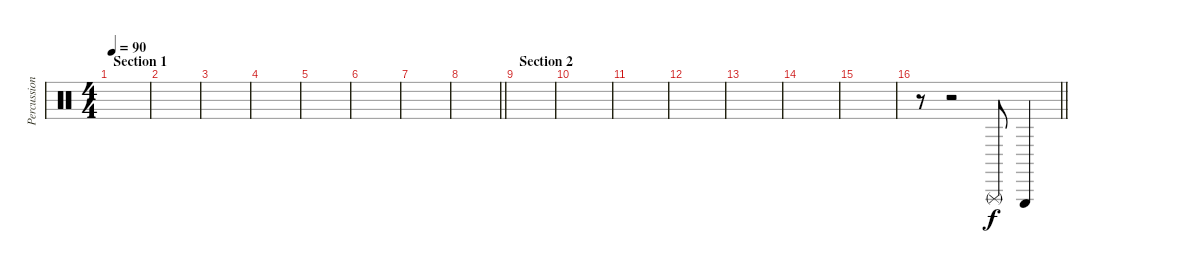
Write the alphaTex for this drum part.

\track ("Percussion" "Percussion") {instrument percussion}
\staff {score}
\articulation defaults
\ts (4 4)
\section ("" "Section 1")
\tempo 90
\clef neutral
\ks c
|
|
|
|
|
|
|
\barLineRight lightlight
|
\section ("" "Section 2")
|
|
|
|
|
|
|
\barLineRight lightlight
r.8 r.2 "Triangle (rnute)".8{volume 4} "Triangle (hit)".4
